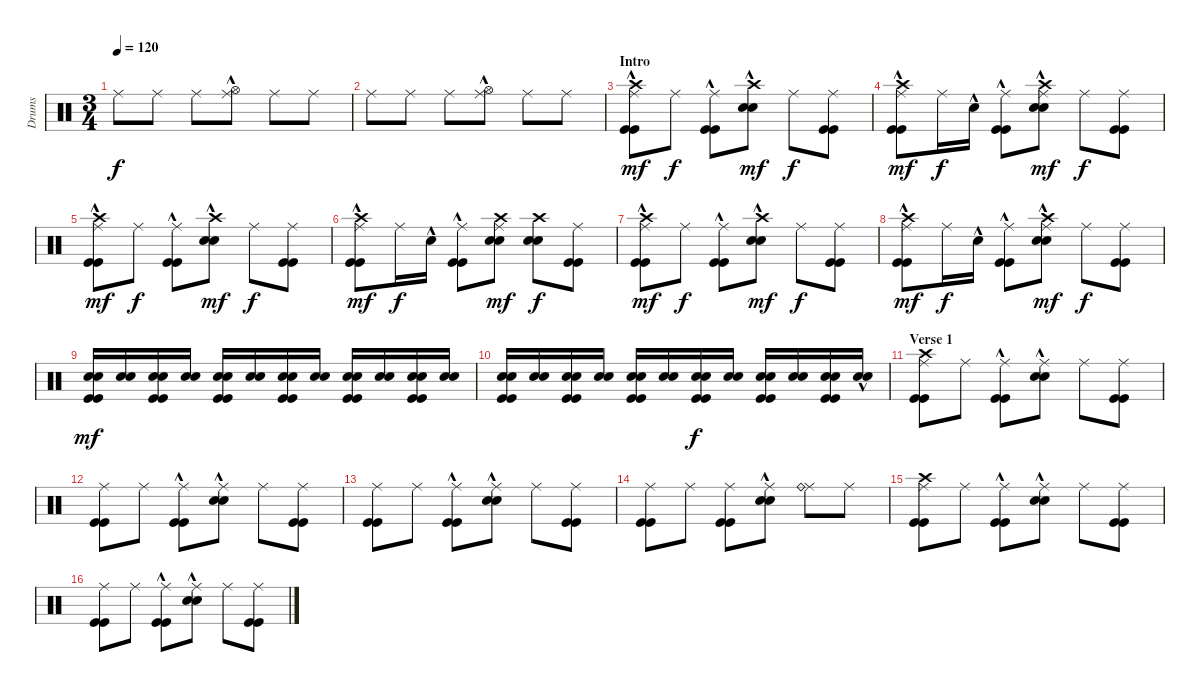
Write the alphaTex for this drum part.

\track ("Drums" "Drums") {instrument percussion}
\staff {score}
\articulation defaults
\ts (3 4)
\tempo 120
\clef neutral
\ks c "Ride (middle)".8{dy f} "Ride (middle)".8 "Ride (middle)".8
("Hi-Hat (open)"{hac} "Ride (middle)").8 "Ride (middle)".8 "Ride (middle)".8 |
"Ride (middle)".8 "Ride (middle)".8 "Ride (middle)".8 ("Hi-Hat (open)"{hac} "Ride (middle)").8 "Ride (middle)".8 "Ride (middle)".8 |
\section ("" "Intro")
("Kick (hit)" "Kick (hit)" "Ride (middle)" "Crash high (hit)"{hac}).8{dy mf} "Ride (middle)".8{dy f} ("Kick (hit)"{hac} "Kick (hit)"{hac} "Ride (middle)").8 ("Snare (hit) 2" "Snare (hit) 2" "Crash high (hit)"{hac}).8{dy mf} "Ride (middle)".8{dy f} ("Kick (hit)" "Kick (hit)" "Ride (middle)").8 |
("Kick (hit)" "Kick (hit)" "Ride (middle)" "Crash high (hit)"{hac}).8{dy mf} "Ride (middle)".16{dy f} "Snare (hit) 2"{hac}.16 ("Kick (hit)"{hac} "Kick (hit)"{hac} "Ride (middle)").8 ("Snare (hit) 2"{hac} "Snare (hit) 2"{hac} "Ride (middle)" "Crash high (hit)"{hac}).8{dy mf} "Ride (middle)".8{dy f} ("Kick (hit)" "Kick (hit)" "Ride (middle)").8 |
("Kick (hit)" "Kick (hit)" "Ride (middle)" "Crash high (hit)"{hac}).8{dy mf} "Ride (middle)".8{dy f} ("Kick (hit)"{hac} "Kick (hit)"{hac} "Ride (middle)").8 ("Snare (hit) 2" "Snare (hit) 2" "Crash high (hit)"{hac}).8{dy mf} "Ride (middle)".8{dy f} ("Kick (hit)" "Kick (hit)" "Ride (middle)").8 |
("Kick (hit)" "Kick (hit)" "Ride (middle)" "Crash high (hit)"{hac}).8{dy mf} "Ride (middle)".16{dy f} "Snare (hit) 2"{hac}.16 ("Kick (hit)"{hac} "Kick (hit)"{hac} "Ride (middle)").8 ("Snare (hit) 2" "Snare (hit) 2" "Ride (middle)" "Crash high (hit)").8{dy mf} ("Snare (hit) 2" "Snare (hit) 2" "Crash high (hit)").8{dy f} ("Kick (hit)" "Kick (hit)" "Ride (middle)").8 |
("Kick (hit)" "Kick (hit)" "Ride (middle)" "Crash high (hit)"{hac}).8{dy mf} "Ride (middle)".8{dy f} ("Kick (hit)"{hac} "Kick (hit)"{hac} "Ride (middle)").8 ("Snare (hit) 2" "Snare (hit) 2" "Crash high (hit)"{hac}).8{dy mf} "Ride (middle)".8{dy f} ("Kick (hit)" "Kick (hit)" "Ride (middle)").8 |
("Kick (hit)" "Kick (hit)" "Ride (middle)" "Crash high (hit)"{hac}).8{dy mf} "Ride (middle)".16{dy f} "Snare (hit) 2"{hac}.16 ("Kick (hit)"{hac} "Kick (hit)"{hac} "Ride (middle)").8 ("Snare (hit) 2"{hac} "Snare (hit) 2"{hac} "Ride (middle)" "Crash high (hit)").8{dy mf} "Ride (middle)".8{dy f} ("Kick (hit)" "Kick (hit)" "Ride (middle)").8 |
("Kick (hit)" "Kick (hit)" "Snare (hit) 2" "Snare (hit) 2").16{dy mf} ("Snare (hit) 2" "Snare (hit) 2").16 ("Kick (hit)" "Kick (hit)" "Snare (hit) 2" "Snare (hit) 2").16 ("Snare (hit) 2" "Snare (hit) 2").16 ("Kick (hit)" "Kick (hit)" "Snare (hit) 2" "Snare (hit) 2").16 ("Snare (hit) 2" "Snare (hit) 2").16 ("Kick (hit)" "Kick (hit)" "Snare (hit) 2" "Snare (hit) 2").16 ("Snare (hit) 2" "Snare (hit) 2").16 ("Kick (hit)" "Kick (hit)" "Snare (hit) 2" "Snare (hit) 2").16 ("Snare (hit) 2" "Snare (hit) 2").16 ("Kick (hit)" "Kick (hit)" "Snare (hit) 2" "Snare (hit) 2").16 ("Snare (hit) 2" "Snare (hit) 2").16 |
("Kick (hit)" "Kick (hit)" "Snare (hit) 2" "Snare (hit) 2").16 ("Snare (hit) 2" "Snare (hit) 2").16 ("Kick (hit)" "Kick (hit)" "Snare (hit) 2" "Snare (hit) 2").16 ("Snare (hit) 2" "Snare (hit) 2").16 ("Kick (hit)" "Kick (hit)" "Snare (hit) 2" "Snare (hit) 2").16 ("Snare (hit) 2" "Snare (hit) 2").16 ("Kick (hit)" "Kick (hit)" "Snare (hit) 2" "Snare (hit) 2").16{dy f} ("Snare (hit) 2" "Snare (hit) 2").16 ("Kick (hit)" "Kick (hit)" "Snare (hit) 2" "Snare (hit) 2").16 ("Snare (hit) 2" "Snare (hit) 2").16 ("Kick (hit)" "Kick (hit)" "Snare (hit) 2" "Snare (hit) 2").16 ("Snare (hit) 2"{hac} "Snare (hit) 2"{hac}).16 |
\section ("" "Verse 1")
("Kick (hit)" "Kick (hit)" "Ride (middle)" "Crash high (hit)").8 "Ride (middle)".8 ("Kick (hit)"{hac} "Kick (hit)"{hac} "Ride (middle)").8 ("Snare (hit) 2"{hac} "Snare (hit) 2"{hac} "Ride (middle)").8 "Ride (middle)".8 ("Kick (hit)" "Kick (hit)" "Ride (middle)").8 |
("Kick (hit)" "Kick (hit)" "Ride (middle)").8 "Ride (middle)".8 ("Kick (hit)"{hac} "Kick (hit)"{hac} "Ride (middle)").8 ("Snare (hit) 2"{hac} "Snare (hit) 2"{hac} "Ride (middle)").8 "Ride (middle)".8 ("Kick (hit)" "Kick (hit)" "Ride (middle)").8 |
("Kick (hit)" "Kick (hit)" "Ride (middle)").8 "Ride (middle)".8 ("Kick (hit)"{hac} "Kick (hit)"{hac} "Ride (middle)").8 ("Snare (hit) 2"{hac} "Snare (hit) 2"{hac} "Ride (middle)").8 "Ride (middle)".8 ("Kick (hit)" "Kick (hit)" "Ride (middle)").8 |
("Kick (hit)" "Kick (hit)" "Ride (middle)").8 "Ride (middle)".8 ("Kick (hit)" "Kick (hit)" "Ride (middle)").8 ("Snare (hit) 2"{hac} "Snare (hit) 2"{hac} "Ride (middle)").8 ("Ride (middle)" "Ride (bell)").8 "Ride (middle)".8 |
("Kick (hit)" "Kick (hit)" "Ride (middle)" "Crash high (hit)").8 "Ride (middle)".8 ("Kick (hit)"{hac} "Kick (hit)"{hac} "Ride (middle)").8 ("Snare (hit) 2"{hac} "Snare (hit) 2"{hac} "Ride (middle)").8 "Ride (middle)".8 ("Kick (hit)" "Kick (hit)" "Ride (middle)").8 |
("Kick (hit)" "Kick (hit)" "Ride (middle)").8 "Ride (middle)".8 ("Kick (hit)"{hac} "Kick (hit)"{hac} "Ride (middle)").8 ("Snare (hit) 2"{hac} "Snare (hit) 2"{hac} "Ride (middle)").8 "Ride (middle)".8 ("Kick (hit)" "Kick (hit)" "Ride (middle)").8
